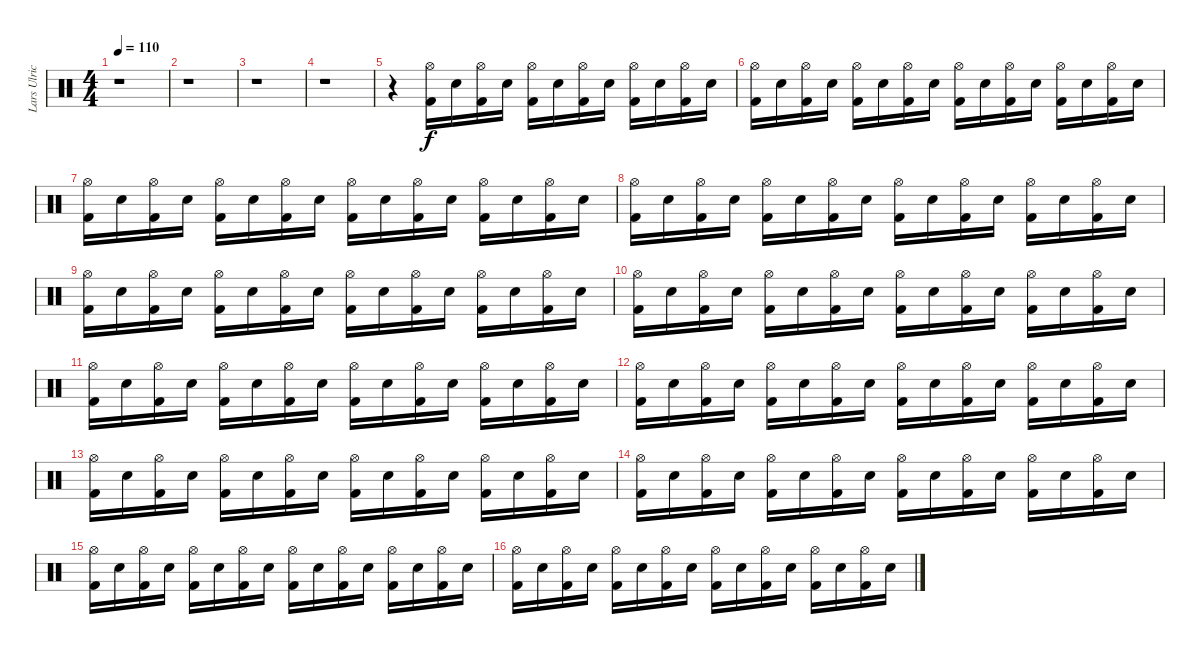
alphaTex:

\track ("Lars Ulrich" "Lars Ulric") {instrument percussion}
\staff {score}
\articulation defaults
\ts (4 4)
\tempo 110
\clef neutral
\ks c
r.1{dy f} |
r.1 |
r.1 |
r.1 |
r.4 ("Hi-Hat (open)" "Kick (hit) 2").16 "Electric Snare (hit)".16 ("Hi-Hat (open)" "Kick (hit) 2").16 "Electric Snare (hit)".16 ("Hi-Hat (open)" "Kick (hit) 2").16 "Electric Snare (hit)".16 ("Hi-Hat (open)" "Kick (hit) 2").16 "Electric Snare (hit)".16 ("Hi-Hat (open)" "Kick (hit) 2").16 "Electric Snare (hit)".16 ("Hi-Hat (open)" "Kick (hit) 2").16 "Electric Snare (hit)".16 |
("Hi-Hat (open)" "Kick (hit) 2").16 "Electric Snare (hit)".16 ("Hi-Hat (open)" "Kick (hit) 2").16 "Electric Snare (hit)".16 ("Hi-Hat (open)" "Kick (hit) 2").16 "Electric Snare (hit)".16 ("Hi-Hat (open)" "Kick (hit) 2").16 "Electric Snare (hit)".16 ("Hi-Hat (open)" "Kick (hit) 2").16 "Electric Snare (hit)".16 ("Hi-Hat (open)" "Kick (hit) 2").16 "Electric Snare (hit)".16 ("Hi-Hat (open)" "Kick (hit) 2").16 "Electric Snare (hit)".16 ("Hi-Hat (open)" "Kick (hit) 2").16 "Electric Snare (hit)".16 |
("Hi-Hat (open)" "Kick (hit) 2").16 "Electric Snare (hit)".16 ("Hi-Hat (open)" "Kick (hit) 2").16 "Electric Snare (hit)".16 ("Hi-Hat (open)" "Kick (hit) 2").16 "Electric Snare (hit)".16 ("Hi-Hat (open)" "Kick (hit) 2").16 "Electric Snare (hit)".16 ("Hi-Hat (open)" "Kick (hit) 2").16 "Electric Snare (hit)".16 ("Hi-Hat (open)" "Kick (hit) 2").16 "Electric Snare (hit)".16 ("Hi-Hat (open)" "Kick (hit) 2").16 "Electric Snare (hit)".16 ("Hi-Hat (open)" "Kick (hit) 2").16 "Electric Snare (hit)".16 |
("Hi-Hat (open)" "Kick (hit) 2").16 "Electric Snare (hit)".16 ("Hi-Hat (open)" "Kick (hit) 2").16 "Electric Snare (hit)".16 ("Hi-Hat (open)" "Kick (hit) 2").16 "Electric Snare (hit)".16 ("Hi-Hat (open)" "Kick (hit) 2").16 "Electric Snare (hit)".16 ("Hi-Hat (open)" "Kick (hit) 2").16 "Electric Snare (hit)".16 ("Hi-Hat (open)" "Kick (hit) 2").16 "Electric Snare (hit)".16 ("Hi-Hat (open)" "Kick (hit) 2").16 "Electric Snare (hit)".16 ("Hi-Hat (open)" "Kick (hit) 2").16 "Electric Snare (hit)".16 |
("Hi-Hat (open)" "Kick (hit) 2").16 "Electric Snare (hit)".16 ("Hi-Hat (open)" "Kick (hit) 2").16 "Electric Snare (hit)".16 ("Hi-Hat (open)" "Kick (hit) 2").16 "Electric Snare (hit)".16 ("Hi-Hat (open)" "Kick (hit) 2").16 "Electric Snare (hit)".16 ("Hi-Hat (open)" "Kick (hit) 2").16 "Electric Snare (hit)".16 ("Hi-Hat (open)" "Kick (hit) 2").16 "Electric Snare (hit)".16 ("Hi-Hat (open)" "Kick (hit) 2").16 "Electric Snare (hit)".16 ("Hi-Hat (open)" "Kick (hit) 2").16 "Electric Snare (hit)".16 |
("Hi-Hat (open)" "Kick (hit) 2").16 "Electric Snare (hit)".16 ("Hi-Hat (open)" "Kick (hit) 2").16 "Electric Snare (hit)".16 ("Hi-Hat (open)" "Kick (hit) 2").16 "Electric Snare (hit)".16 ("Hi-Hat (open)" "Kick (hit) 2").16 "Electric Snare (hit)".16 ("Hi-Hat (open)" "Kick (hit) 2").16 "Electric Snare (hit)".16 ("Hi-Hat (open)" "Kick (hit) 2").16 "Electric Snare (hit)".16 ("Hi-Hat (open)" "Kick (hit) 2").16 "Electric Snare (hit)".16 ("Hi-Hat (open)" "Kick (hit) 2").16 "Electric Snare (hit)".16 |
("Hi-Hat (open)" "Kick (hit) 2").16 "Electric Snare (hit)".16 ("Hi-Hat (open)" "Kick (hit) 2").16 "Electric Snare (hit)".16 ("Hi-Hat (open)" "Kick (hit) 2").16 "Electric Snare (hit)".16 ("Hi-Hat (open)" "Kick (hit) 2").16 "Electric Snare (hit)".16 ("Hi-Hat (open)" "Kick (hit) 2").16 "Electric Snare (hit)".16 ("Hi-Hat (open)" "Kick (hit) 2").16 "Electric Snare (hit)".16 ("Hi-Hat (open)" "Kick (hit) 2").16 "Electric Snare (hit)".16 ("Hi-Hat (open)" "Kick (hit) 2").16 "Electric Snare (hit)".16 |
("Hi-Hat (open)" "Kick (hit) 2").16 "Electric Snare (hit)".16 ("Hi-Hat (open)" "Kick (hit) 2").16 "Electric Snare (hit)".16 ("Hi-Hat (open)" "Kick (hit) 2").16 "Electric Snare (hit)".16 ("Hi-Hat (open)" "Kick (hit) 2").16 "Electric Snare (hit)".16 ("Hi-Hat (open)" "Kick (hit) 2").16 "Electric Snare (hit)".16 ("Hi-Hat (open)" "Kick (hit) 2").16 "Electric Snare (hit)".16 ("Hi-Hat (open)" "Kick (hit) 2").16 "Electric Snare (hit)".16 ("Hi-Hat (open)" "Kick (hit) 2").16 "Electric Snare (hit)".16 |
("Hi-Hat (open)" "Kick (hit) 2").16 "Electric Snare (hit)".16 ("Hi-Hat (open)" "Kick (hit) 2").16 "Electric Snare (hit)".16 ("Hi-Hat (open)" "Kick (hit) 2").16 "Electric Snare (hit)".16 ("Hi-Hat (open)" "Kick (hit) 2").16 "Electric Snare (hit)".16 ("Hi-Hat (open)" "Kick (hit) 2").16 "Electric Snare (hit)".16 ("Hi-Hat (open)" "Kick (hit) 2").16 "Electric Snare (hit)".16 ("Hi-Hat (open)" "Kick (hit) 2").16 "Electric Snare (hit)".16 ("Hi-Hat (open)" "Kick (hit) 2").16 "Electric Snare (hit)".16 |
("Hi-Hat (open)" "Kick (hit) 2").16 "Electric Snare (hit)".16 ("Hi-Hat (open)" "Kick (hit) 2").16 "Electric Snare (hit)".16 ("Hi-Hat (open)" "Kick (hit) 2").16 "Electric Snare (hit)".16 ("Hi-Hat (open)" "Kick (hit) 2").16 "Electric Snare (hit)".16 ("Hi-Hat (open)" "Kick (hit) 2").16 "Electric Snare (hit)".16 ("Hi-Hat (open)" "Kick (hit) 2").16 "Electric Snare (hit)".16 ("Hi-Hat (open)" "Kick (hit) 2").16 "Electric Snare (hit)".16 ("Hi-Hat (open)" "Kick (hit) 2").16 "Electric Snare (hit)".16 |
("Hi-Hat (open)" "Kick (hit) 2").16 "Electric Snare (hit)".16 ("Hi-Hat (open)" "Kick (hit) 2").16 "Electric Snare (hit)".16 ("Hi-Hat (open)" "Kick (hit) 2").16 "Electric Snare (hit)".16 ("Hi-Hat (open)" "Kick (hit) 2").16 "Electric Snare (hit)".16 ("Hi-Hat (open)" "Kick (hit) 2").16 "Electric Snare (hit)".16 ("Hi-Hat (open)" "Kick (hit) 2").16 "Electric Snare (hit)".16 ("Hi-Hat (open)" "Kick (hit) 2").16 "Electric Snare (hit)".16 ("Hi-Hat (open)" "Kick (hit) 2").16 "Electric Snare (hit)".16 |
("Hi-Hat (open)" "Kick (hit) 2").16 "Electric Snare (hit)".16 ("Hi-Hat (open)" "Kick (hit) 2").16 "Electric Snare (hit)".16 ("Hi-Hat (open)" "Kick (hit) 2").16 "Electric Snare (hit)".16 ("Hi-Hat (open)" "Kick (hit) 2").16 "Electric Snare (hit)".16 ("Hi-Hat (open)" "Kick (hit) 2").16 "Electric Snare (hit)".16 ("Hi-Hat (open)" "Kick (hit) 2").16 "Electric Snare (hit)".16 ("Hi-Hat (open)" "Kick (hit) 2").16 "Electric Snare (hit)".16 ("Hi-Hat (open)" "Kick (hit) 2").16 "Electric Snare (hit)".16
